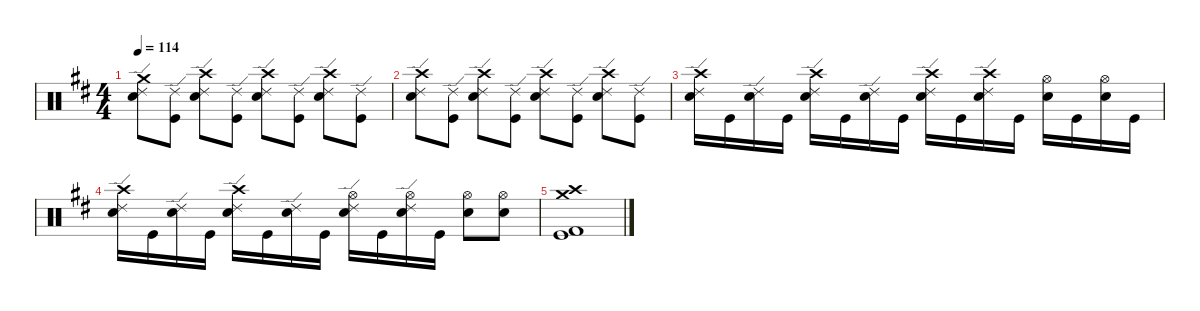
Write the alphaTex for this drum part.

\defaultSystemsLayout 4
\hideDynamics
\bracketExtendMode nobrackets
\singleTrackTrackNamePolicy hidden
\multiTrackTrackNamePolicy hidden
\firstSystemTrackNameMode fullname
\firstSystemTrackNameOrientation horizontal
\otherSystemsTrackNameOrientation horizontal
\track ("Aaron Harris" "drm.") {instrument percussion}
\staff {score}
\articulation defaults
\ts (4 4)
\tempo 114
\clef neutral
\ks bminor
("Crash medium (hit)"{acc forcenatural} "Ride (edge) 2"{acc forcenatural} "Snare (hit) 2"{acc forcenatural}).8{dy f beam Down} ("Ride (edge) 2"{acc forcenatural} "Kick (hit)"{acc forcenatural}).8{beam Down} ("Crash high (hit)"{acc forcenatural} "Ride (edge) 2"{acc forcenatural} "Snare (hit) 2"{acc forcenatural}).8{beam Down} ("Ride (edge) 2"{acc forcenatural} "Kick (hit)"{acc forcenatural}).8{beam Down} ("Crash high (hit)"{acc forcenatural} "Ride (edge) 2"{acc forcenatural} "Snare (hit) 2"{acc forcenatural}).8{beam Down} ("Ride (edge) 2"{acc forcenatural} "Kick (hit)"{acc forcenatural}).8{beam Down} ("Crash high (hit)"{acc forcenatural} "Ride (edge) 2"{acc forcenatural} "Snare (hit) 2"{acc forcenatural}).8{beam Down} ("Ride (edge) 2"{acc forcenatural} "Kick (hit)"{acc forcenatural}).8{beam Down} |
("Crash high (hit)"{acc forcenatural} "Ride (edge) 2"{acc forcenatural} "Snare (hit) 2"{acc forcenatural}).8{beam Down} ("Ride (edge) 2"{acc forcenatural} "Kick (hit)"{acc forcenatural}).8{beam Down} ("Crash high (hit)"{acc forcenatural} "Ride (edge) 2"{acc forcenatural} "Snare (hit) 2"{acc forcenatural}).8{beam Down} ("Ride (edge) 2"{acc forcenatural} "Kick (hit)"{acc forcenatural}).8{beam Down} ("Crash high (hit)"{acc forcenatural} "Ride (edge) 2"{acc forcenatural} "Snare (hit) 2"{acc forcenatural}).8{beam Down} ("Ride (edge) 2"{acc forcenatural} "Kick (hit)"{acc forcenatural}).8{beam Down} ("Crash high (hit)"{acc forcenatural} "Ride (edge) 2"{acc forcenatural} "Snare (hit) 2"{acc forcenatural}).8{beam Down} ("Ride (edge) 2"{acc forcenatural} "Kick (hit)"{acc forcenatural}).8{beam Down} |
("Crash high (hit)"{acc forcenatural} "Ride (edge) 2"{acc forcenatural} "Snare (hit) 2"{acc forcenatural}).16{beam Down} "Kick (hit)"{acc forcenatural}.16{beam Down} ("Ride (edge) 2"{acc forcenatural} "Snare (hit) 2"{acc forcenatural}).16{beam Down} "Kick (hit)"{acc forcenatural}.16{beam Down} ("Crash high (hit)"{acc forcenatural} "Ride (edge) 2"{acc forcenatural} "Snare (hit) 2"{acc forcenatural}).16{beam Down} "Kick (hit)"{acc forcenatural}.16{beam Down} ("Ride (edge) 2"{acc forcenatural} "Snare (hit) 2"{acc forcenatural}).16{beam Down} "Kick (hit)"{acc forcenatural}.16{beam Down} ("Crash high (hit)"{acc forcenatural} "Ride (edge) 2"{acc forcenatural} "Snare (hit) 2"{acc forcenatural}).16{beam Down} "Kick (hit)"{acc forcenatural}.16{beam Down} ("Crash high (hit)"{acc forcenatural} "Ride (edge) 2"{acc forcenatural} "Snare (hit) 2"{acc forcenatural}).16{beam Down} "Kick (hit)"{acc forcenatural}.16{beam Down} ("Hi-Hat (open)"{acc forcenatural} "Snare (hit) 2"{acc forcenatural}).16{beam Down} "Kick (hit)"{acc forcenatural}.16{beam Down} ("Hi-Hat (open)"{acc forcenatural} "Snare (hit) 2"{acc forcenatural}).16{beam Down} "Kick (hit)"{acc forcenatural}.16{beam Down} |
("Crash high (hit)"{acc forcenatural} "Ride (edge) 2"{acc forcenatural} "Snare (hit) 2"{acc forcenatural}).16{beam Down} "Kick (hit)"{acc forcenatural}.16{beam Down} ("Ride (edge) 2"{acc forcenatural} "Snare (hit) 2"{acc forcenatural}).16{beam Down} "Kick (hit)"{acc forcenatural}.16{beam Down} ("Crash high (hit)"{acc forcenatural} "Ride (edge) 2"{acc forcenatural} "Snare (hit) 2"{acc forcenatural}).16{beam Down} "Kick (hit)"{acc forcenatural}.16{beam Down} ("Ride (edge) 2"{acc forcenatural} "Snare (hit) 2"{acc forcenatural}).16{beam Down} "Kick (hit)"{acc forcenatural}.16{beam Down} ("Hi-Hat (open)"{acc forcenatural} "Ride (edge) 2"{acc forcenatural} "Snare (hit) 2"{acc forcenatural}).16{beam Down} "Kick (hit)"{acc forcenatural}.16{beam Down} ("Hi-Hat (open)"{acc forcenatural} "Ride (edge) 2"{acc forcenatural} "Snare (hit) 2"{acc forcenatural}).16{beam Down} "Kick (hit)"{acc forcenatural}.16{beam Down} ("Hi-Hat (open)"{acc forcenatural} "Snare (hit) 2"{acc forcenatural}).8{beam Down} ("Hi-Hat (open)"{acc forcenatural} "Snare (hit) 2"{acc forcenatural}).8{beam Down} |
("Crash medium (hit)"{acc forcenatural} "Crash high (hit)"{acc forcenatural} "Kick (hit) 2"{acc forcenatural} "Kick (hit)"{acc forcenatural}).1{beam Down}
